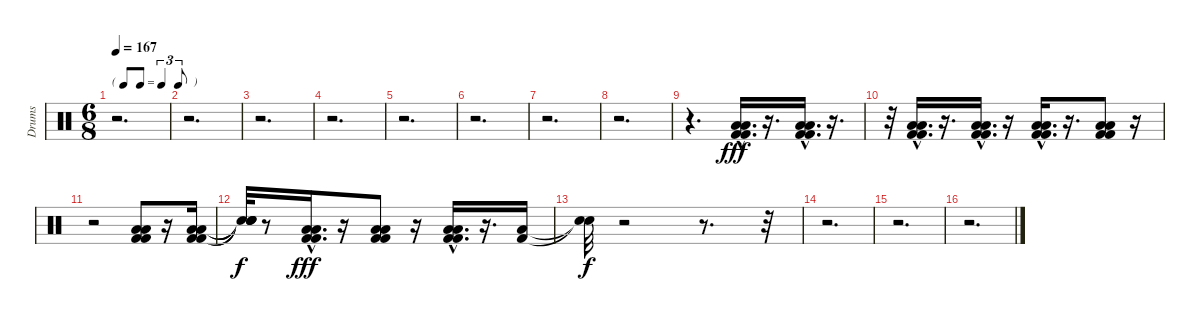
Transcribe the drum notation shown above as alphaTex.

\track ("Drums" "Drums") {instrument percussion}
\staff {score}
\articulation defaults
\ts (6 8)
\tf triplet8th
\tempo 167
\clef neutral
\ks c
r.2{d dy fff} |
r.2{d} |
r.2{d} |
r.2{d} |
r.2{d} |
r.2{d} |
r.2{d} |
r.2{d} |
r.4{d} ("Low Floor Tom (hit)"{hac} "Low Floor Tom (hit)"{hac} "Kick (hit) 2"{hac} "Kick (hit) 2"{hac}).16{d} r.16{d} ("Low Floor Tom (hit)"{hac} "Low Floor Tom (hit)"{hac} "Kick (hit) 2"{hac} "Kick (hit) 2"{hac}).16{d} r.16{d} |
r.32 ("Low Floor Tom (hit)"{hac} "Low Floor Tom (hit)"{hac} "Kick (hit) 2"{hac} "Kick (hit) 2"{hac}).16{d} r.16{d} ("Low Floor Tom (hit)"{hac} "Low Floor Tom (hit)"{hac} "Kick (hit) 2"{hac} "Kick (hit) 2"{hac}).16{d} r.16 ("Low Floor Tom (hit)"{hac} "Low Floor Tom (hit)"{hac} "Kick (hit) 2"{hac} "Kick (hit) 2"{hac}).16{d} r.16{d} ("Low Floor Tom (hit)" "Low Floor Tom (hit)" "Kick (hit) 2" "Kick (hit) 2").8 r.16 |
r.2 ("Low Floor Tom (hit)" "Low Floor Tom (hit)" "Kick (hit) 2" "Kick (hit) 2").8 r.16 ("Low Floor Tom (hit)" "Low Floor Tom (hit)" "Kick (hit) 2" "Kick (hit) 2").16 |
("Snare (hit)"{t} "Snare (hit)"{t} "Snare (hit)"{t} "Snare (hit)"{t}).32{dy f} r.8 ("Low Floor Tom (hit)"{hac} "Low Floor Tom (hit)"{hac} "Kick (hit) 2"{hac} "Kick (hit) 2"{hac}).16{d dy fff} r.16 ("Low Floor Tom (hit)" "Low Floor Tom (hit)" "Kick (hit) 2" "Kick (hit) 2").8 r.16 ("Low Floor Tom (hit)"{hac} "Low Floor Tom (hit)"{hac} "Kick (hit) 2"{hac} "Kick (hit) 2"{hac}).16{d} r.16{d} ("Kick (hit) 2" "Low Floor Tom (hit)").16 |
("Snare (hit)"{t} "Snare (hit)"{t}).32{dy f} r.2 r.8{d} r.32 |
r.2{d} |
r.2{d} |
r.2{d}
